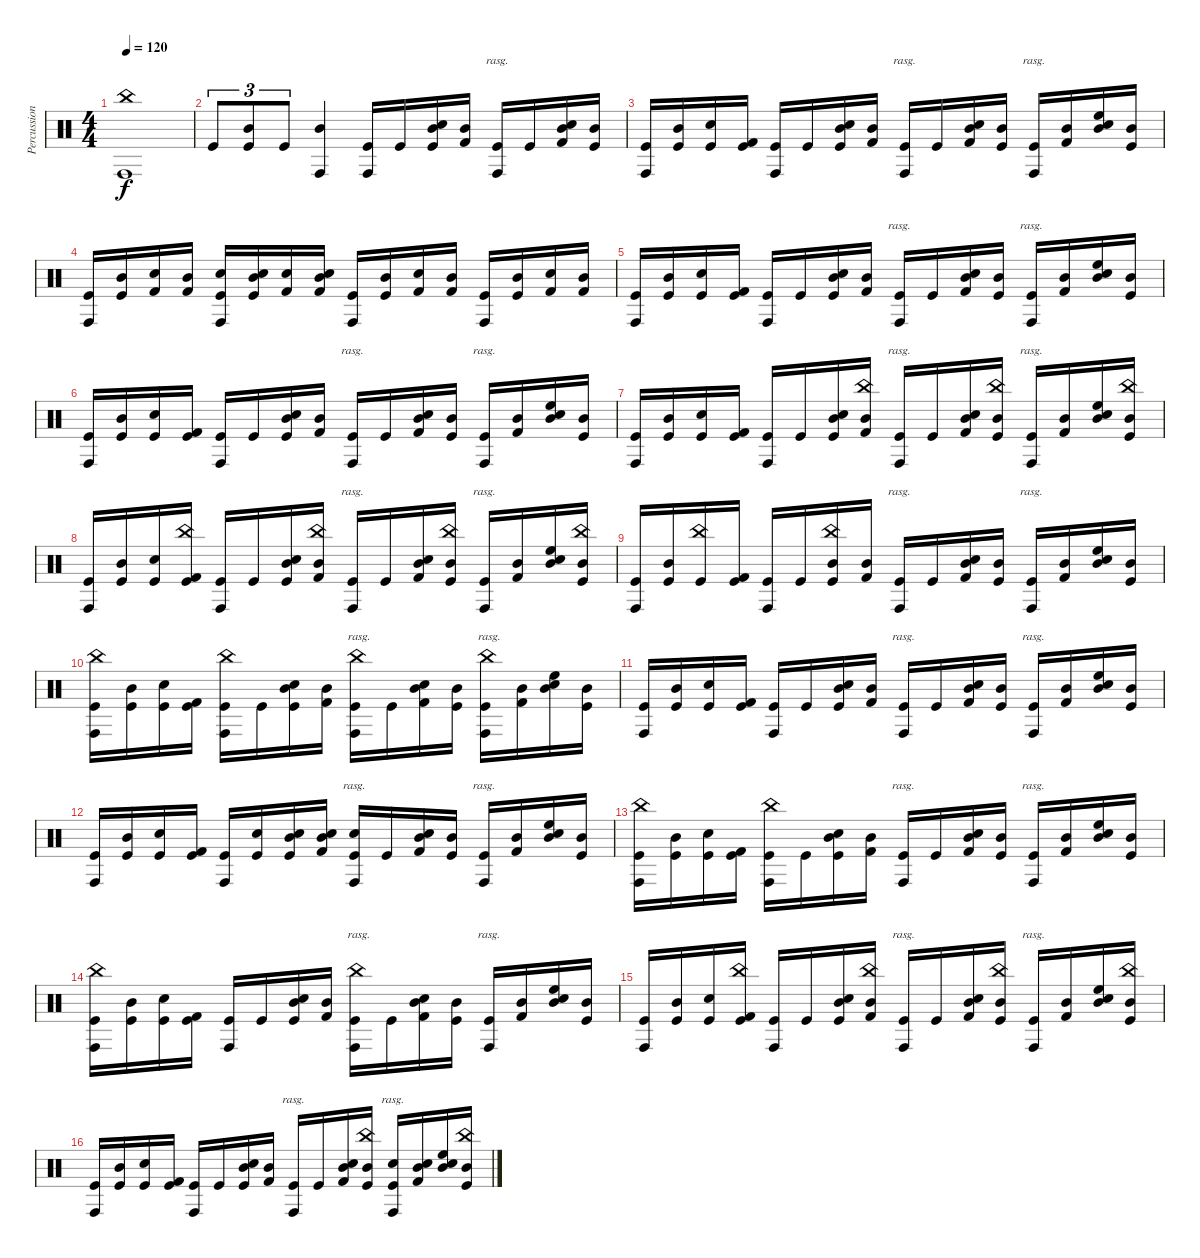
\track ("Percussion" "Percussion") {instrument percussion}
\staff {score}
\articulation defaults
\ts (4 4)
\tempo 120
\clef neutral
\ks c
("China (hit)" "Conga high (hit)").1{bd 480 dy f} |
"Kick (hit)".8{tu (3 2)} ("Mid Tom (hit)" "Kick (hit)").8{tu (3 2)} "Kick (hit)".8{tu (3 2)} ("Mid Tom (hit)" "Conga high (hit)").4 ("Conga high (hit)" "Kick (hit)").16{bd 480} "Kick (hit)".16 ("Electric Snare (hit)" "Mid Tom (hit)" "Kick (hit)").16 ("Mid Tom (hit)" "Kick (hit) 2").16 ("Conga high (hit)" "Kick (hit)").16{bd 480 rasg ii} "Kick (hit)".16 ("Electric Snare (hit)" "Mid Tom (hit)" "Kick (hit) 2").16 ("Mid Tom (hit)" "Kick (hit)").16 |
("Conga high (hit)" "Kick (hit)").16 ("Mid Tom (hit)" "Kick (hit)").16 ("Electric Snare (hit)" "Kick (hit)").16 ("Kick (hit) 2" "Kick (hit)").16{bd 480} ("Conga high (hit)" "Kick (hit)").16{bd 480} "Kick (hit)".16 ("Electric Snare (hit)" "Mid Tom (hit)" "Kick (hit)").16 ("Mid Tom (hit)" "Kick (hit) 2").16 ("Conga high (hit)" "Kick (hit)").16{bd 480 rasg ii} "Kick (hit)".16 ("Electric Snare (hit)" "Mid Tom (hit)" "Kick (hit) 2").16 ("Mid Tom (hit)" "Kick (hit)").16 ("Conga high (hit)" "Kick (hit)").16{bd 480 rasg ii} ("Mid Tom (hit)" "Kick (hit) 2").16 ("Electric Snare (hit)" "Mid Tom (hit)" "High Floor Tom (hit)").16 ("Mid Tom (hit)" "Kick (hit)").16 |
("Conga high (hit)" "Kick (hit)").16 ("Mid Tom (hit)" "Kick (hit)").16 ("Electric Snare (hit)" "Kick (hit) 2").16 ("Mid Tom (hit)" "Kick (hit) 2").16 ("Electric Snare (hit)" "Conga high (hit)" "Kick (hit)").16 ("Electric Snare (hit)" "Mid Tom (hit)" "Kick (hit)").16 ("Electric Snare (hit)" "Kick (hit) 2").16 ("Electric Snare (hit)" "Mid Tom (hit)" "Kick (hit) 2").16 ("Conga high (hit)" "Kick (hit)").16 ("Mid Tom (hit)" "Kick (hit)").16 ("Electric Snare (hit)" "Kick (hit) 2").16 ("Mid Tom (hit)" "Kick (hit) 2").16 ("Conga high (hit)" "Kick (hit)").16 ("Mid Tom (hit)" "Kick (hit)").16 ("Electric Snare (hit)" "Kick (hit) 2").16 ("Mid Tom (hit)" "Kick (hit) 2").16 |
("Conga high (hit)" "Kick (hit)").16 ("Mid Tom (hit)" "Kick (hit)").16 ("Electric Snare (hit)" "Kick (hit)").16 ("Kick (hit) 2" "Kick (hit)").16{bd 480} ("Conga high (hit)" "Kick (hit)").16{bd 480} "Kick (hit)".16 ("Electric Snare (hit)" "Mid Tom (hit)" "Kick (hit)").16 ("Mid Tom (hit)" "Kick (hit) 2").16 ("Conga high (hit)" "Kick (hit)").16{bd 480 rasg ii} "Kick (hit)".16 ("Electric Snare (hit)" "Mid Tom (hit)" "Kick (hit) 2").16 ("Mid Tom (hit)" "Kick (hit)").16 ("Conga high (hit)" "Kick (hit)").16{bd 480 rasg ii} ("Mid Tom (hit)" "Kick (hit) 2").16 ("Electric Snare (hit)" "Mid Tom (hit)" "High Floor Tom (hit)").16 ("Mid Tom (hit)" "Kick (hit)").16 |
("Conga high (hit)" "Kick (hit)").16 ("Mid Tom (hit)" "Kick (hit)").16 ("Electric Snare (hit)" "Kick (hit)").16 ("Kick (hit) 2" "Kick (hit)").16{bd 480} ("Conga high (hit)" "Kick (hit)").16{bd 480} "Kick (hit)".16 ("Electric Snare (hit)" "Mid Tom (hit)" "Kick (hit)").16 ("Mid Tom (hit)" "Kick (hit) 2").16 ("Conga high (hit)" "Kick (hit)").16{bd 480 rasg ii} "Kick (hit)".16 ("Electric Snare (hit)" "Mid Tom (hit)" "Kick (hit) 2").16 ("Mid Tom (hit)" "Kick (hit)").16 ("Conga high (hit)" "Kick (hit)").16{bd 480 rasg ii} ("Mid Tom (hit)" "Kick (hit) 2").16 ("Electric Snare (hit)" "Mid Tom (hit)" "High Floor Tom (hit)").16 ("Mid Tom (hit)" "Kick (hit)").16 |
("Conga high (hit)" "Kick (hit)").16 ("Mid Tom (hit)" "Kick (hit)").16 ("Electric Snare (hit)" "Kick (hit)").16 ("Kick (hit) 2" "Kick (hit)").16{bd 480} ("Conga high (hit)" "Kick (hit)").16{bd 480} "Kick (hit)".16 ("Electric Snare (hit)" "Mid Tom (hit)" "Kick (hit)").16 ("China (hit)" "Mid Tom (hit)" "Kick (hit) 2").16 ("Conga high (hit)" "Kick (hit)").16{bd 480 rasg ii} "Kick (hit)".16 ("Electric Snare (hit)" "Mid Tom (hit)" "Kick (hit) 2").16 ("China (hit)" "Mid Tom (hit)" "Kick (hit)").16 ("Conga high (hit)" "Kick (hit)").16{bd 480 rasg ii} ("Mid Tom (hit)" "Kick (hit) 2").16 ("Electric Snare (hit)" "Mid Tom (hit)" "High Floor Tom (hit)").16 ("China (hit)" "Mid Tom (hit)" "Kick (hit)").16 |
("Conga high (hit)" "Kick (hit)").16 ("Mid Tom (hit)" "Kick (hit)").16 ("Electric Snare (hit)" "Kick (hit)").16 ("China (hit)" "Kick (hit) 2" "Kick (hit)").16{bd 480} ("Conga high (hit)" "Kick (hit)").16{bd 480} "Kick (hit)".16 ("Electric Snare (hit)" "Mid Tom (hit)" "Kick (hit)").16 ("China (hit)" "Mid Tom (hit)" "Kick (hit) 2").16 ("Conga high (hit)" "Kick (hit)").16{bd 480 rasg ii} "Kick (hit)".16 ("Electric Snare (hit)" "Mid Tom (hit)" "Kick (hit) 2").16 ("China (hit)" "Mid Tom (hit)" "Kick (hit)").16 ("Conga high (hit)" "Kick (hit)").16{bd 480 rasg ii} ("Mid Tom (hit)" "Kick (hit) 2").16 ("Electric Snare (hit)" "Mid Tom (hit)" "High Floor Tom (hit)").16 ("China (hit)" "Mid Tom (hit)" "Kick (hit)").16 |
("Conga high (hit)" "Kick (hit)").16 ("Mid Tom (hit)" "Kick (hit)").16 ("China (hit)" "Kick (hit)").16 ("Kick (hit) 2" "Kick (hit)").16{bd 480} ("Conga high (hit)" "Kick (hit)").16{bd 480} "Kick (hit)".16 ("China (hit)" "Mid Tom (hit)" "Kick (hit)").16 ("Mid Tom (hit)" "Kick (hit) 2").16 ("Conga high (hit)" "Kick (hit)").16{bd 480 rasg ii} "Kick (hit)".16 ("Electric Snare (hit)" "Mid Tom (hit)" "Kick (hit) 2").16 ("Mid Tom (hit)" "Kick (hit)").16 ("Conga high (hit)" "Kick (hit)").16{bd 480 rasg ii} ("Mid Tom (hit)" "Kick (hit) 2").16 ("Electric Snare (hit)" "Mid Tom (hit)" "High Floor Tom (hit)").16 ("Mid Tom (hit)" "Kick (hit)").16 |
("China (hit)" "Conga high (hit)" "Kick (hit)").16 ("Mid Tom (hit)" "Kick (hit)").16 ("Electric Snare (hit)" "Kick (hit)").16 ("Kick (hit) 2" "Kick (hit)").16{bd 480} ("China (hit)" "Conga high (hit)" "Kick (hit)").16{bd 480} "Kick (hit)".16 ("Electric Snare (hit)" "Mid Tom (hit)" "Kick (hit)").16 ("Mid Tom (hit)" "Kick (hit) 2").16 ("China (hit)" "Conga high (hit)" "Kick (hit)").16{bd 480 rasg ii} "Kick (hit)".16 ("Electric Snare (hit)" "Mid Tom (hit)" "Kick (hit) 2").16 ("Mid Tom (hit)" "Kick (hit)").16 ("China (hit)" "Conga high (hit)" "Kick (hit)").16{bd 480 rasg ii} ("Mid Tom (hit)" "Kick (hit) 2").16 ("Electric Snare (hit)" "Mid Tom (hit)" "High Floor Tom (hit)").16 ("Mid Tom (hit)" "Kick (hit)").16 |
("Conga high (hit)" "Kick (hit)").16 ("Mid Tom (hit)" "Kick (hit)").16 ("Electric Snare (hit)" "Kick (hit)").16 ("Kick (hit) 2" "Kick (hit)").16{bd 480} ("Conga high (hit)" "Kick (hit)").16{bd 480} "Kick (hit)".16 ("Electric Snare (hit)" "Mid Tom (hit)" "Kick (hit)").16 ("Mid Tom (hit)" "Kick (hit) 2").16 ("Conga high (hit)" "Kick (hit)").16{bd 480 rasg ii} "Kick (hit)".16 ("Electric Snare (hit)" "Mid Tom (hit)" "Kick (hit) 2").16 ("Mid Tom (hit)" "Kick (hit)").16 ("Conga high (hit)" "Kick (hit)").16{bd 480 rasg ii} ("Mid Tom (hit)" "Kick (hit) 2").16 ("Electric Snare (hit)" "Mid Tom (hit)" "High Floor Tom (hit)").16 ("Mid Tom (hit)" "Kick (hit)").16 |
("Conga high (hit)" "Kick (hit)").16 ("Mid Tom (hit)" "Kick (hit)").16 ("Electric Snare (hit)" "Kick (hit)").16 ("Kick (hit) 2" "Kick (hit)").16{bd 480} ("Conga high (hit)" "Kick (hit)").16{bd 480} ("Electric Snare (hit)" "Kick (hit)").16 ("Electric Snare (hit)" "Mid Tom (hit)" "Kick (hit)").16 ("Electric Snare (hit)" "Mid Tom (hit)" "Kick (hit) 2").16 ("Electric Snare (hit)" "Conga high (hit)" "Kick (hit)").16{bd 480 rasg ii} "Kick (hit)".16 ("Electric Snare (hit)" "Mid Tom (hit)" "Kick (hit) 2").16 ("Mid Tom (hit)" "Kick (hit)").16 ("Conga high (hit)" "Kick (hit)").16{bd 480 rasg ii} ("Mid Tom (hit)" "Kick (hit) 2").16 ("Electric Snare (hit)" "Mid Tom (hit)" "High Floor Tom (hit)").16 ("Mid Tom (hit)" "Kick (hit)").16 |
("China (hit)" "Conga high (hit)" "Kick (hit)").16 ("Mid Tom (hit)" "Kick (hit)").16 ("Electric Snare (hit)" "Kick (hit)").16 ("Kick (hit) 2" "Kick (hit)").16{bd 480} ("China (hit)" "Conga high (hit)" "Kick (hit)").16{bd 480} "Kick (hit)".16 ("Electric Snare (hit)" "Mid Tom (hit)" "Kick (hit)").16 ("Mid Tom (hit)" "Kick (hit) 2").16 ("Conga high (hit)" "Kick (hit)").16{bd 480 rasg ii} "Kick (hit)".16 ("Electric Snare (hit)" "Mid Tom (hit)" "Kick (hit) 2").16 ("Mid Tom (hit)" "Kick (hit)").16 ("Conga high (hit)" "Kick (hit)").16{bd 480 rasg ii} ("Mid Tom (hit)" "Kick (hit) 2").16 ("Electric Snare (hit)" "Mid Tom (hit)" "High Floor Tom (hit)").16 ("Mid Tom (hit)" "Kick (hit)").16 |
("China (hit)" "Conga high (hit)" "Kick (hit)").16 ("Mid Tom (hit)" "Kick (hit)").16 ("Electric Snare (hit)" "Kick (hit)").16 ("Kick (hit) 2" "Kick (hit)").16{bd 480} ("Conga high (hit)" "Kick (hit)").16{bd 480} "Kick (hit)".16 ("Electric Snare (hit)" "Mid Tom (hit)" "Kick (hit)").16 ("Mid Tom (hit)" "Kick (hit) 2").16 ("China (hit)" "Conga high (hit)" "Kick (hit)").16{bd 480 rasg ii} "Kick (hit)".16 ("Electric Snare (hit)" "Mid Tom (hit)" "Kick (hit) 2").16 ("Mid Tom (hit)" "Kick (hit)").16 ("Conga high (hit)" "Kick (hit)").16{bd 480 rasg ii} ("Mid Tom (hit)" "Kick (hit) 2").16 ("Electric Snare (hit)" "Mid Tom (hit)" "High Floor Tom (hit)").16 ("Mid Tom (hit)" "Kick (hit)").16 |
("Conga high (hit)" "Kick (hit)").16 ("Mid Tom (hit)" "Kick (hit)").16 ("Electric Snare (hit)" "Kick (hit)").16 ("China (hit)" "Kick (hit) 2" "Kick (hit)").16{bd 480} ("Conga high (hit)" "Kick (hit)").16{bd 480} "Kick (hit)".16 ("Electric Snare (hit)" "Mid Tom (hit)" "Kick (hit)").16 ("China (hit)" "Mid Tom (hit)" "Kick (hit) 2").16 ("Conga high (hit)" "Kick (hit)").16{bd 480 rasg ii} "Kick (hit)".16 ("Electric Snare (hit)" "Mid Tom (hit)" "Kick (hit) 2").16 ("China (hit)" "Mid Tom (hit)" "Kick (hit)").16 ("Conga high (hit)" "Kick (hit)").16{bd 480 rasg ii} ("Mid Tom (hit)" "Kick (hit) 2").16 ("Electric Snare (hit)" "Mid Tom (hit)" "High Floor Tom (hit)").16 ("China (hit)" "Mid Tom (hit)" "Kick (hit)").16 |
("Conga high (hit)" "Kick (hit)").16 ("Mid Tom (hit)" "Kick (hit)").16 ("Electric Snare (hit)" "Kick (hit)").16 ("Kick (hit) 2" "Kick (hit)").16{bd 480} ("Conga high (hit)" "Kick (hit)").16{bd 480} "Kick (hit)".16 ("Electric Snare (hit)" "Mid Tom (hit)" "Kick (hit)").16 ("Mid Tom (hit)" "Kick (hit) 2").16 ("Conga high (hit)" "Kick (hit)").16{bd 480 rasg ii} "Kick (hit)".16 ("Electric Snare (hit)" "Mid Tom (hit)" "Kick (hit) 2").16 ("China (hit)" "Mid Tom (hit)" "Kick (hit)").16 ("Electric Snare (hit)" "Conga high (hit)" "Kick (hit)").16{bd 480 rasg ii} ("Electric Snare (hit)" "Mid Tom (hit)" "Kick (hit) 2").16 ("Electric Snare (hit)" "Mid Tom (hit)" "High Floor Tom (hit)").16 ("China (hit)" "Mid Tom (hit)" "Kick (hit)").16
